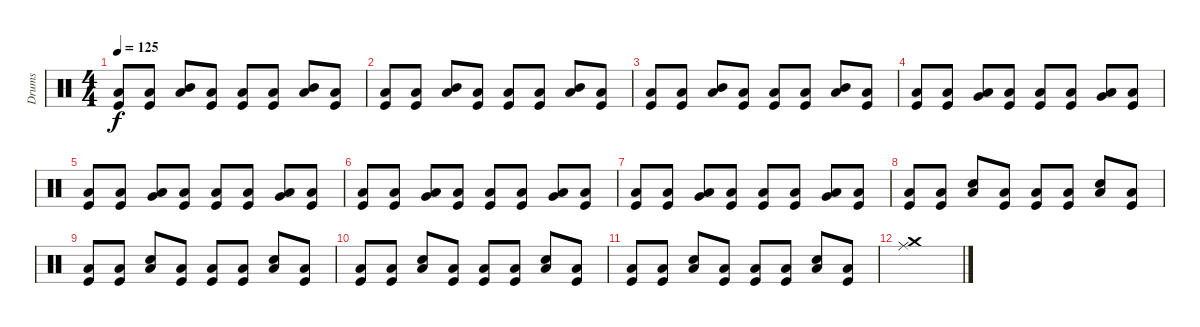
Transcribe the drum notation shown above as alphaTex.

\track ("Drums" "Drums") {instrument percussion}
\staff {score}
\articulation defaults
\ts (4 4)
\tempo 125
\clef neutral
\ks c
("Low Floor Tom (hit)" "Kick (hit)").8{dy f} ("Low Floor Tom (hit)" "Kick (hit)").8 ("Low Floor Tom (hit)" "Mid Tom (hit)").8 ("Low Floor Tom (hit)" "Kick (hit)").8 ("Low Floor Tom (hit)" "Kick (hit)").8 ("Low Floor Tom (hit)" "Kick (hit)").8 ("Low Floor Tom (hit)" "Mid Tom (hit)").8 ("Low Floor Tom (hit)" "Kick (hit)").8 |
("Low Floor Tom (hit)" "Kick (hit)").8 ("Low Floor Tom (hit)" "Kick (hit)").8 ("Low Floor Tom (hit)" "Mid Tom (hit)").8 ("Low Floor Tom (hit)" "Kick (hit)").8 ("Low Floor Tom (hit)" "Kick (hit)").8 ("Low Floor Tom (hit)" "Kick (hit)").8 ("Low Floor Tom (hit)" "Mid Tom (hit)").8 ("Low Floor Tom (hit)" "Kick (hit)").8 |
("Low Floor Tom (hit)" "Kick (hit)").8 ("Low Floor Tom (hit)" "Kick (hit)").8 ("Low Floor Tom (hit)" "Mid Tom (hit)").8 ("Low Floor Tom (hit)" "Kick (hit)").8 ("Low Floor Tom (hit)" "Kick (hit)").8 ("Low Floor Tom (hit)" "Kick (hit)").8 ("Low Floor Tom (hit)" "Mid Tom (hit)").8 ("Low Floor Tom (hit)" "Kick (hit)").8 |
("Low Floor Tom (hit)" "Kick (hit)").8 ("Low Floor Tom (hit)" "Kick (hit)").8 ("Low Floor Tom (hit)" "Very Low Tom (hit)").8 ("Low Floor Tom (hit)" "Kick (hit)").8 ("Low Floor Tom (hit)" "Kick (hit)").8 ("Low Floor Tom (hit)" "Kick (hit)").8 ("Low Floor Tom (hit)" "Very Low Tom (hit)").8 ("Low Floor Tom (hit)" "Kick (hit)").8 |
("Low Floor Tom (hit)" "Kick (hit)").8 ("Low Floor Tom (hit)" "Kick (hit)").8 ("Low Floor Tom (hit)" "Very Low Tom (hit)").8 ("Low Floor Tom (hit)" "Kick (hit)").8 ("Low Floor Tom (hit)" "Kick (hit)").8 ("Low Floor Tom (hit)" "Kick (hit)").8 ("Low Floor Tom (hit)" "Very Low Tom (hit)").8 ("Low Floor Tom (hit)" "Kick (hit)").8 |
("Low Floor Tom (hit)" "Kick (hit)").8 ("Low Floor Tom (hit)" "Kick (hit)").8 ("Low Floor Tom (hit)" "Very Low Tom (hit)").8 ("Low Floor Tom (hit)" "Kick (hit)").8 ("Low Floor Tom (hit)" "Kick (hit)").8 ("Low Floor Tom (hit)" "Kick (hit)").8 ("Low Floor Tom (hit)" "Very Low Tom (hit)").8 ("Low Floor Tom (hit)" "Kick (hit)").8 |
("Low Floor Tom (hit)" "Kick (hit)").8 ("Low Floor Tom (hit)" "Kick (hit)").8 ("Low Floor Tom (hit)" "Very Low Tom (hit)").8 ("Low Floor Tom (hit)" "Kick (hit)").8 ("Low Floor Tom (hit)" "Kick (hit)").8 ("Low Floor Tom (hit)" "Kick (hit)").8 ("Low Floor Tom (hit)" "Very Low Tom (hit)").8 ("Low Floor Tom (hit)" "Kick (hit)").8 |
("Low Floor Tom (hit)" "Kick (hit)").8 ("Low Floor Tom (hit)" "Kick (hit)").8 ("Low Floor Tom (hit)" "Electric Snare (hit)").8 ("Low Floor Tom (hit)" "Kick (hit)").8 ("Low Floor Tom (hit)" "Kick (hit)").8 ("Low Floor Tom (hit)" "Kick (hit)").8 ("Low Floor Tom (hit)" "Electric Snare (hit)").8 ("Low Floor Tom (hit)" "Kick (hit)").8 |
("Low Floor Tom (hit)" "Kick (hit)").8 ("Low Floor Tom (hit)" "Kick (hit)").8 ("Low Floor Tom (hit)" "Electric Snare (hit)").8 ("Low Floor Tom (hit)" "Kick (hit)").8 ("Low Floor Tom (hit)" "Kick (hit)").8 ("Low Floor Tom (hit)" "Kick (hit)").8 ("Low Floor Tom (hit)" "Electric Snare (hit)").8 ("Low Floor Tom (hit)" "Kick (hit)").8 |
("Low Floor Tom (hit)" "Kick (hit)").8 ("Low Floor Tom (hit)" "Kick (hit)").8 ("Low Floor Tom (hit)" "Electric Snare (hit)").8 ("Low Floor Tom (hit)" "Kick (hit)").8 ("Low Floor Tom (hit)" "Kick (hit)").8 ("Low Floor Tom (hit)" "Kick (hit)").8 ("Low Floor Tom (hit)" "Electric Snare (hit)").8 ("Low Floor Tom (hit)" "Kick (hit)").8 |
("Low Floor Tom (hit)" "Kick (hit)").8 ("Low Floor Tom (hit)" "Kick (hit)").8 ("Low Floor Tom (hit)" "Electric Snare (hit)").8 ("Low Floor Tom (hit)" "Kick (hit)").8 ("Low Floor Tom (hit)" "Kick (hit)").8 ("Low Floor Tom (hit)" "Kick (hit)").8 ("Low Floor Tom (hit)" "Electric Snare (hit)").8 ("Low Floor Tom (hit)" "Kick (hit)").8 |
("Crash medium (hit)" "Ride (middle)").1
